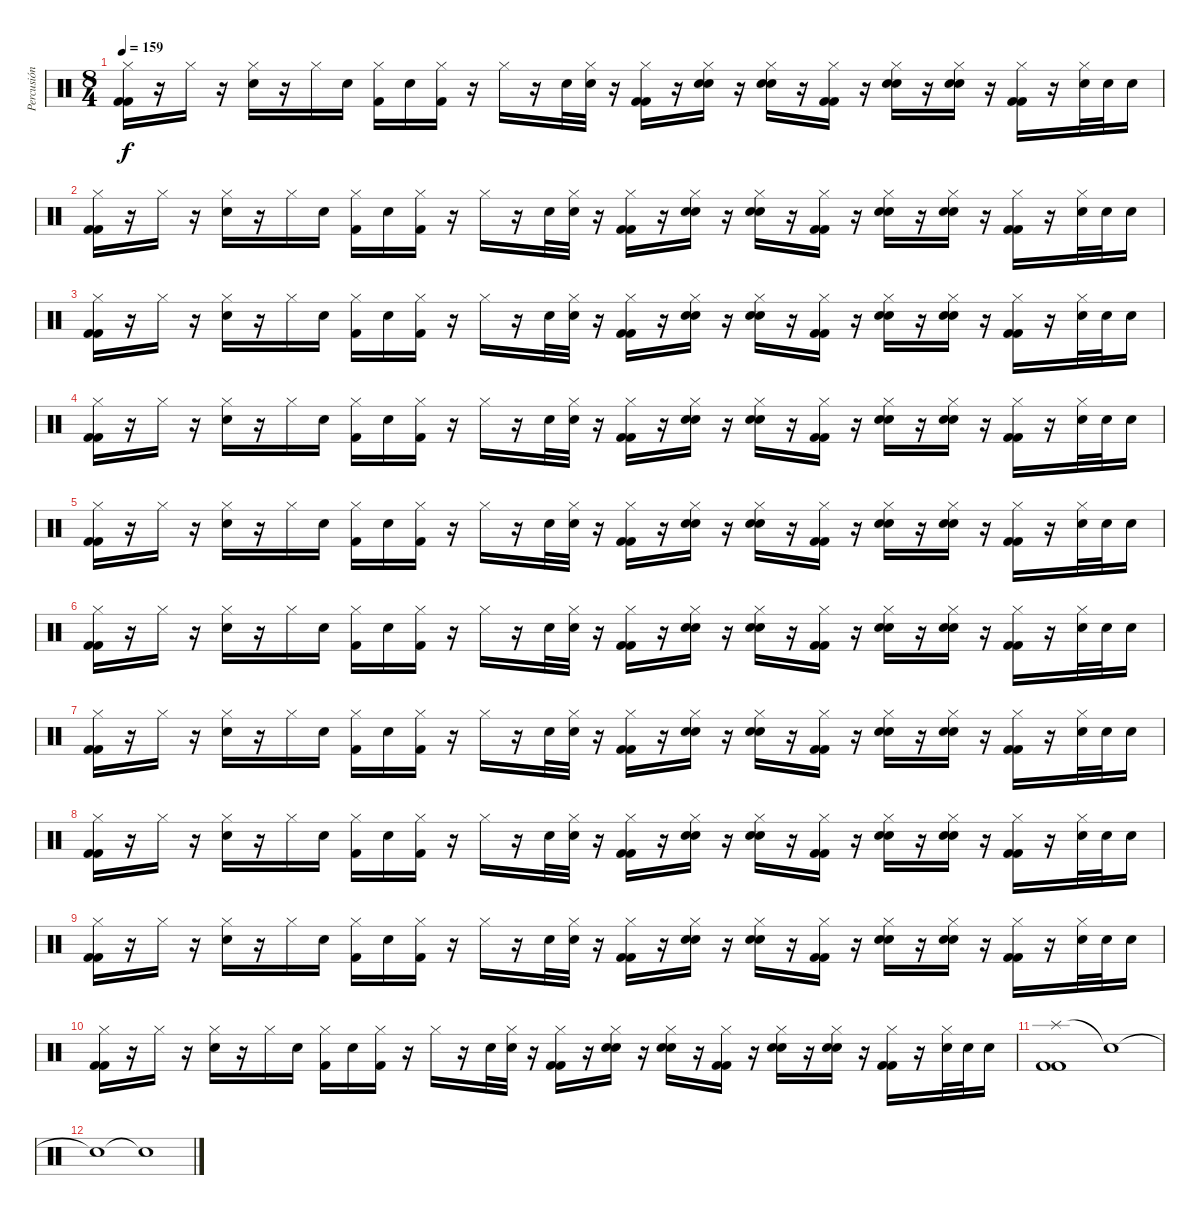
\track ("Percusión" "Percusión") {instrument percussion}
\staff {score}
\articulation defaults
\ts (8 4)
\tempo 159
\clef neutral
\ks c
("Hi-Hat (closed)" "Kick (hit) 2" "Kick (hit) 2").16{dy f} r.16 "Hi-Hat (closed)".16 r.16 ("Hi-Hat (closed)" "Electric Snare (hit)").16 r.16 "Hi-Hat (closed)".16 "Electric Snare (hit)".16 ("Hi-Hat (closed)" "Kick (hit) 2").16 "Electric Snare (hit)".16 ("Hi-Hat (closed)" "Kick (hit) 2").16 r.16 "Hi-Hat (closed)".16 r.16 "Electric Snare (hit)".32 ("Hi-Hat (closed)" "Electric Snare (hit)").32 r.16 ("Hi-Hat (closed)" "Kick (hit) 2" "Kick (hit) 2").16 r.16 ("Hi-Hat (closed)" "Electric Snare (hit)" "Electric Snare (hit)").16 r.16 ("Hi-Hat (closed)" "Electric Snare (hit)" "Electric Snare (hit)").16 r.16 ("Hi-Hat (closed)" "Kick (hit) 2" "Kick (hit) 2").16 r.16 ("Hi-Hat (closed)" "Electric Snare (hit)" "Electric Snare (hit)").16 r.16 ("Hi-Hat (closed)" "Electric Snare (hit)" "Electric Snare (hit)").16 r.16 ("Hi-Hat (closed)" "Kick (hit) 2" "Kick (hit) 2").16 r.16 ("Hi-Hat (closed)" "Electric Snare (hit)").32 "Electric Snare (hit)".32 "Electric Snare (hit)".16 |
("Hi-Hat (closed)" "Kick (hit) 2" "Kick (hit) 2").16 r.16 "Hi-Hat (closed)".16 r.16 ("Hi-Hat (closed)" "Electric Snare (hit)").16 r.16 "Hi-Hat (closed)".16 "Electric Snare (hit)".16 ("Hi-Hat (closed)" "Kick (hit) 2").16 "Electric Snare (hit)".16 ("Hi-Hat (closed)" "Kick (hit) 2").16 r.16 "Hi-Hat (closed)".16 r.16 "Electric Snare (hit)".32 ("Hi-Hat (closed)" "Electric Snare (hit)").32 r.16 ("Hi-Hat (closed)" "Kick (hit) 2" "Kick (hit) 2").16 r.16 ("Hi-Hat (closed)" "Electric Snare (hit)" "Electric Snare (hit)").16 r.16 ("Hi-Hat (closed)" "Electric Snare (hit)" "Electric Snare (hit)").16 r.16 ("Hi-Hat (closed)" "Kick (hit) 2" "Kick (hit) 2").16 r.16 ("Hi-Hat (closed)" "Electric Snare (hit)" "Electric Snare (hit)").16 r.16 ("Hi-Hat (closed)" "Electric Snare (hit)" "Electric Snare (hit)").16 r.16 ("Hi-Hat (closed)" "Kick (hit) 2" "Kick (hit) 2").16 r.16 ("Hi-Hat (closed)" "Electric Snare (hit)").32 "Electric Snare (hit)".32 "Electric Snare (hit)".16 |
("Hi-Hat (closed)" "Kick (hit) 2" "Kick (hit) 2").16 r.16 "Hi-Hat (closed)".16 r.16 ("Hi-Hat (closed)" "Electric Snare (hit)").16 r.16 "Hi-Hat (closed)".16 "Electric Snare (hit)".16 ("Hi-Hat (closed)" "Kick (hit) 2").16 "Electric Snare (hit)".16 ("Hi-Hat (closed)" "Kick (hit) 2").16 r.16 "Hi-Hat (closed)".16 r.16 "Electric Snare (hit)".32 ("Hi-Hat (closed)" "Electric Snare (hit)").32 r.16 ("Hi-Hat (closed)" "Kick (hit) 2" "Kick (hit) 2").16 r.16 ("Hi-Hat (closed)" "Electric Snare (hit)" "Electric Snare (hit)").16 r.16 ("Hi-Hat (closed)" "Electric Snare (hit)" "Electric Snare (hit)").16 r.16 ("Hi-Hat (closed)" "Kick (hit) 2" "Kick (hit) 2").16 r.16 ("Hi-Hat (closed)" "Electric Snare (hit)" "Electric Snare (hit)").16 r.16 ("Hi-Hat (closed)" "Electric Snare (hit)" "Electric Snare (hit)").16 r.16 ("Hi-Hat (closed)" "Kick (hit) 2" "Kick (hit) 2").16 r.16 ("Hi-Hat (closed)" "Electric Snare (hit)").32 "Electric Snare (hit)".32 "Electric Snare (hit)".16 |
("Hi-Hat (closed)" "Kick (hit) 2" "Kick (hit) 2").16 r.16 "Hi-Hat (closed)".16 r.16 ("Hi-Hat (closed)" "Electric Snare (hit)").16 r.16 "Hi-Hat (closed)".16 "Electric Snare (hit)".16 ("Hi-Hat (closed)" "Kick (hit) 2").16 "Electric Snare (hit)".16 ("Hi-Hat (closed)" "Kick (hit) 2").16 r.16 "Hi-Hat (closed)".16 r.16 "Electric Snare (hit)".32 ("Hi-Hat (closed)" "Electric Snare (hit)").32 r.16 ("Hi-Hat (closed)" "Kick (hit) 2" "Kick (hit) 2").16 r.16 ("Hi-Hat (closed)" "Electric Snare (hit)" "Electric Snare (hit)").16 r.16 ("Hi-Hat (closed)" "Electric Snare (hit)" "Electric Snare (hit)").16 r.16 ("Hi-Hat (closed)" "Kick (hit) 2" "Kick (hit) 2").16 r.16 ("Hi-Hat (closed)" "Electric Snare (hit)" "Electric Snare (hit)").16 r.16 ("Hi-Hat (closed)" "Electric Snare (hit)" "Electric Snare (hit)").16 r.16 ("Hi-Hat (closed)" "Kick (hit) 2" "Kick (hit) 2").16 r.16 ("Hi-Hat (closed)" "Electric Snare (hit)").32 "Electric Snare (hit)".32 "Electric Snare (hit)".16 |
("Hi-Hat (closed)" "Kick (hit) 2" "Kick (hit) 2").16 r.16 "Hi-Hat (closed)".16 r.16 ("Hi-Hat (closed)" "Electric Snare (hit)").16 r.16 "Hi-Hat (closed)".16 "Electric Snare (hit)".16 ("Hi-Hat (closed)" "Kick (hit) 2").16 "Electric Snare (hit)".16 ("Hi-Hat (closed)" "Kick (hit) 2").16 r.16 "Hi-Hat (closed)".16 r.16 "Electric Snare (hit)".32 ("Hi-Hat (closed)" "Electric Snare (hit)").32 r.16 ("Hi-Hat (closed)" "Kick (hit) 2" "Kick (hit) 2").16 r.16 ("Hi-Hat (closed)" "Electric Snare (hit)" "Electric Snare (hit)").16 r.16 ("Hi-Hat (closed)" "Electric Snare (hit)" "Electric Snare (hit)").16 r.16 ("Hi-Hat (closed)" "Kick (hit) 2" "Kick (hit) 2").16 r.16 ("Hi-Hat (closed)" "Electric Snare (hit)" "Electric Snare (hit)").16 r.16 ("Hi-Hat (closed)" "Electric Snare (hit)" "Electric Snare (hit)").16 r.16 ("Hi-Hat (closed)" "Kick (hit) 2" "Kick (hit) 2").16 r.16 ("Hi-Hat (closed)" "Electric Snare (hit)").32 "Electric Snare (hit)".32 "Electric Snare (hit)".16 |
("Hi-Hat (closed)" "Kick (hit) 2" "Kick (hit) 2").16 r.16 "Hi-Hat (closed)".16 r.16 ("Hi-Hat (closed)" "Electric Snare (hit)").16 r.16 "Hi-Hat (closed)".16 "Electric Snare (hit)".16 ("Hi-Hat (closed)" "Kick (hit) 2").16 "Electric Snare (hit)".16 ("Hi-Hat (closed)" "Kick (hit) 2").16 r.16 "Hi-Hat (closed)".16 r.16 "Electric Snare (hit)".32 ("Hi-Hat (closed)" "Electric Snare (hit)").32 r.16 ("Hi-Hat (closed)" "Kick (hit) 2" "Kick (hit) 2").16 r.16 ("Hi-Hat (closed)" "Electric Snare (hit)" "Electric Snare (hit)").16 r.16 ("Hi-Hat (closed)" "Electric Snare (hit)" "Electric Snare (hit)").16 r.16 ("Hi-Hat (closed)" "Kick (hit) 2" "Kick (hit) 2").16 r.16 ("Hi-Hat (closed)" "Electric Snare (hit)" "Electric Snare (hit)").16 r.16 ("Hi-Hat (closed)" "Electric Snare (hit)" "Electric Snare (hit)").16 r.16 ("Hi-Hat (closed)" "Kick (hit) 2" "Kick (hit) 2").16 r.16 ("Hi-Hat (closed)" "Electric Snare (hit)").32 "Electric Snare (hit)".32 "Electric Snare (hit)".16 |
("Hi-Hat (closed)" "Kick (hit) 2" "Kick (hit) 2").16 r.16 "Hi-Hat (closed)".16 r.16 ("Hi-Hat (closed)" "Electric Snare (hit)").16 r.16 "Hi-Hat (closed)".16 "Electric Snare (hit)".16 ("Hi-Hat (closed)" "Kick (hit) 2").16 "Electric Snare (hit)".16 ("Hi-Hat (closed)" "Kick (hit) 2").16 r.16 "Hi-Hat (closed)".16 r.16 "Electric Snare (hit)".32 ("Hi-Hat (closed)" "Electric Snare (hit)").32 r.16 ("Hi-Hat (closed)" "Kick (hit) 2" "Kick (hit) 2").16 r.16 ("Hi-Hat (closed)" "Electric Snare (hit)" "Electric Snare (hit)").16 r.16 ("Hi-Hat (closed)" "Electric Snare (hit)" "Electric Snare (hit)").16 r.16 ("Hi-Hat (closed)" "Kick (hit) 2" "Kick (hit) 2").16 r.16 ("Hi-Hat (closed)" "Electric Snare (hit)" "Electric Snare (hit)").16 r.16 ("Hi-Hat (closed)" "Electric Snare (hit)" "Electric Snare (hit)").16 r.16 ("Hi-Hat (closed)" "Kick (hit) 2" "Kick (hit) 2").16 r.16 ("Hi-Hat (closed)" "Electric Snare (hit)").32 "Electric Snare (hit)".32 "Electric Snare (hit)".16 |
("Hi-Hat (closed)" "Kick (hit) 2" "Kick (hit) 2").16 r.16 "Hi-Hat (closed)".16 r.16 ("Hi-Hat (closed)" "Electric Snare (hit)").16 r.16 "Hi-Hat (closed)".16 "Electric Snare (hit)".16 ("Hi-Hat (closed)" "Kick (hit) 2").16 "Electric Snare (hit)".16 ("Hi-Hat (closed)" "Kick (hit) 2").16 r.16 "Hi-Hat (closed)".16 r.16 "Electric Snare (hit)".32 ("Hi-Hat (closed)" "Electric Snare (hit)").32 r.16 ("Hi-Hat (closed)" "Kick (hit) 2" "Kick (hit) 2").16 r.16 ("Hi-Hat (closed)" "Electric Snare (hit)" "Electric Snare (hit)").16 r.16 ("Hi-Hat (closed)" "Electric Snare (hit)" "Electric Snare (hit)").16 r.16 ("Hi-Hat (closed)" "Kick (hit) 2" "Kick (hit) 2").16 r.16 ("Hi-Hat (closed)" "Electric Snare (hit)" "Electric Snare (hit)").16 r.16 ("Hi-Hat (closed)" "Electric Snare (hit)" "Electric Snare (hit)").16 r.16 ("Hi-Hat (closed)" "Kick (hit) 2" "Kick (hit) 2").16 r.16 ("Hi-Hat (closed)" "Electric Snare (hit)").32 "Electric Snare (hit)".32 "Electric Snare (hit)".16 |
("Hi-Hat (closed)" "Kick (hit) 2" "Kick (hit) 2").16 r.16 "Hi-Hat (closed)".16 r.16 ("Hi-Hat (closed)" "Electric Snare (hit)").16 r.16 "Hi-Hat (closed)".16 "Electric Snare (hit)".16 ("Hi-Hat (closed)" "Kick (hit) 2").16 "Electric Snare (hit)".16 ("Hi-Hat (closed)" "Kick (hit) 2").16 r.16 "Hi-Hat (closed)".16 r.16 "Electric Snare (hit)".32 ("Hi-Hat (closed)" "Electric Snare (hit)").32 r.16 ("Hi-Hat (closed)" "Kick (hit) 2" "Kick (hit) 2").16 r.16 ("Hi-Hat (closed)" "Electric Snare (hit)" "Electric Snare (hit)").16 r.16 ("Hi-Hat (closed)" "Electric Snare (hit)" "Electric Snare (hit)").16 r.16 ("Hi-Hat (closed)" "Kick (hit) 2" "Kick (hit) 2").16 r.16 ("Hi-Hat (closed)" "Electric Snare (hit)" "Electric Snare (hit)").16 r.16 ("Hi-Hat (closed)" "Electric Snare (hit)" "Electric Snare (hit)").16 r.16 ("Hi-Hat (closed)" "Kick (hit) 2" "Kick (hit) 2").16 r.16 ("Hi-Hat (closed)" "Electric Snare (hit)").32 "Electric Snare (hit)".32 "Electric Snare (hit)".16 |
("Hi-Hat (closed)" "Kick (hit) 2" "Kick (hit) 2").16 r.16 "Hi-Hat (closed)".16 r.16 ("Hi-Hat (closed)" "Electric Snare (hit)").16 r.16 "Hi-Hat (closed)".16 "Electric Snare (hit)".16 ("Hi-Hat (closed)" "Kick (hit) 2").16 "Electric Snare (hit)".16 ("Hi-Hat (closed)" "Kick (hit) 2").16 r.16 "Hi-Hat (closed)".16 r.16 "Electric Snare (hit)".32 ("Hi-Hat (closed)" "Electric Snare (hit)").32 r.16 ("Hi-Hat (closed)" "Kick (hit) 2" "Kick (hit) 2").16 r.16 ("Hi-Hat (closed)" "Electric Snare (hit)" "Electric Snare (hit)").16 r.16 ("Hi-Hat (closed)" "Electric Snare (hit)" "Electric Snare (hit)").16 r.16 ("Hi-Hat (closed)" "Kick (hit) 2" "Kick (hit) 2").16 r.16 ("Hi-Hat (closed)" "Electric Snare (hit)" "Electric Snare (hit)").16 r.16 ("Hi-Hat (closed)" "Electric Snare (hit)" "Electric Snare (hit)").16 r.16 ("Hi-Hat (closed)" "Kick (hit) 2" "Kick (hit) 2").16 r.16 ("Hi-Hat (closed)" "Electric Snare (hit)").32 "Electric Snare (hit)".32 "Electric Snare (hit)".16 |
("Splash (hit)" "Kick (hit) 2" "Kick (hit) 2").1 "Snare (hit)"{t}.1 |
"Snare (hit)"{t}.1 "Snare (hit)"{t}.1
